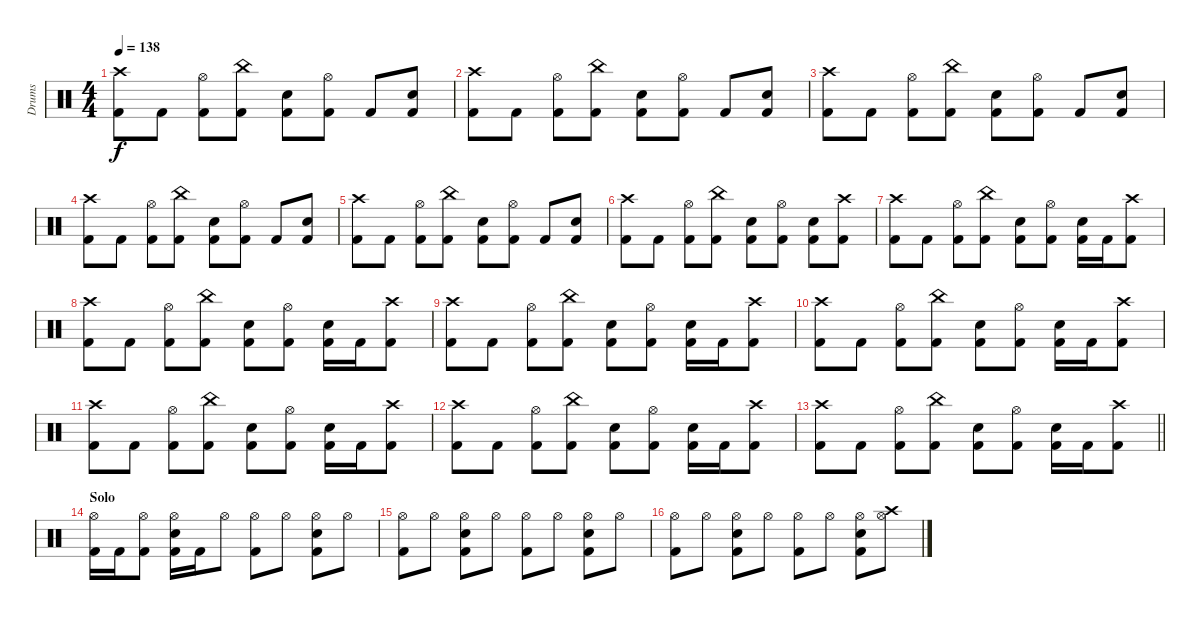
\track ("Drums" "Drums") {instrument percussion}
\staff {score}
\articulation defaults
\ts (4 4)
\tempo 138
\clef neutral
\ks c
("Crash high (hit)" "Kick (hit) 2").8{dy f} "Kick (hit) 2".8 ("Hi-Hat (open)" "Kick (hit) 2").8 ("China (hit)" "Kick (hit) 2").8 ("Electric Snare (hit)" "Kick (hit) 2").8 ("Hi-Hat (open)" "Kick (hit) 2").8 "Kick (hit) 2".8 ("Electric Snare (hit)" "Kick (hit) 2").8 |
("Crash high (hit)" "Kick (hit) 2").8 "Kick (hit) 2".8 ("Hi-Hat (open)" "Kick (hit) 2").8 ("China (hit)" "Kick (hit) 2").8 ("Electric Snare (hit)" "Kick (hit) 2").8 ("Hi-Hat (open)" "Kick (hit) 2").8 "Kick (hit) 2".8 ("Electric Snare (hit)" "Kick (hit) 2").8 |
("Crash high (hit)" "Kick (hit) 2").8 "Kick (hit) 2".8 ("Hi-Hat (open)" "Kick (hit) 2").8 ("China (hit)" "Kick (hit) 2").8 ("Electric Snare (hit)" "Kick (hit) 2").8 ("Hi-Hat (open)" "Kick (hit) 2").8 "Kick (hit) 2".8 ("Electric Snare (hit)" "Kick (hit) 2").8 |
("Crash high (hit)" "Kick (hit) 2").8 "Kick (hit) 2".8 ("Hi-Hat (open)" "Kick (hit) 2").8 ("China (hit)" "Kick (hit) 2").8 ("Electric Snare (hit)" "Kick (hit) 2").8 ("Hi-Hat (open)" "Kick (hit) 2").8 "Kick (hit) 2".8 ("Electric Snare (hit)" "Kick (hit) 2").8 |
("Crash high (hit)" "Kick (hit) 2").8 "Kick (hit) 2".8 ("Hi-Hat (open)" "Kick (hit) 2").8 ("China (hit)" "Kick (hit) 2").8 ("Electric Snare (hit)" "Kick (hit) 2").8 ("Hi-Hat (open)" "Kick (hit) 2").8 "Kick (hit) 2".8 ("Electric Snare (hit)" "Kick (hit) 2").8 |
("Crash high (hit)" "Kick (hit) 2").8 "Kick (hit) 2".8 ("Hi-Hat (open)" "Kick (hit) 2").8 ("China (hit)" "Kick (hit) 2").8 ("Electric Snare (hit)" "Kick (hit) 2").8 ("Hi-Hat (open)" "Kick (hit) 2").8 ("Electric Snare (hit)" "Kick (hit) 2").8 ("Crash high (hit)" "Kick (hit) 2").8 |
("Crash high (hit)" "Kick (hit) 2").8 "Kick (hit) 2".8 ("Hi-Hat (open)" "Kick (hit) 2").8 ("China (hit)" "Kick (hit) 2").8 ("Electric Snare (hit)" "Kick (hit) 2").8 ("Hi-Hat (open)" "Kick (hit) 2").8 ("Electric Snare (hit)" "Kick (hit) 2").16 "Kick (hit) 2".16 ("Crash high (hit)" "Kick (hit) 2").8 |
("Crash high (hit)" "Kick (hit) 2").8 "Kick (hit) 2".8 ("Hi-Hat (open)" "Kick (hit) 2").8 ("China (hit)" "Kick (hit) 2").8 ("Electric Snare (hit)" "Kick (hit) 2").8 ("Hi-Hat (open)" "Kick (hit) 2").8 ("Electric Snare (hit)" "Kick (hit) 2").16 "Kick (hit) 2".16 ("Crash high (hit)" "Kick (hit) 2").8 |
("Crash high (hit)" "Kick (hit) 2").8 "Kick (hit) 2".8 ("Hi-Hat (open)" "Kick (hit) 2").8 ("China (hit)" "Kick (hit) 2").8 ("Electric Snare (hit)" "Kick (hit) 2").8 ("Hi-Hat (open)" "Kick (hit) 2").8 ("Electric Snare (hit)" "Kick (hit) 2").16 "Kick (hit) 2".16 ("Crash high (hit)" "Kick (hit) 2").8 |
("Crash high (hit)" "Kick (hit) 2").8 "Kick (hit) 2".8 ("Hi-Hat (open)" "Kick (hit) 2").8 ("China (hit)" "Kick (hit) 2").8 ("Electric Snare (hit)" "Kick (hit) 2").8 ("Hi-Hat (open)" "Kick (hit) 2").8 ("Electric Snare (hit)" "Kick (hit) 2").16 "Kick (hit) 2".16 ("Crash high (hit)" "Kick (hit) 2").8 |
("Crash high (hit)" "Kick (hit) 2").8 "Kick (hit) 2".8 ("Hi-Hat (open)" "Kick (hit) 2").8 ("China (hit)" "Kick (hit) 2").8 ("Electric Snare (hit)" "Kick (hit) 2").8 ("Hi-Hat (open)" "Kick (hit) 2").8 ("Electric Snare (hit)" "Kick (hit) 2").16 "Kick (hit) 2".16 ("Crash high (hit)" "Kick (hit) 2").8 |
("Crash high (hit)" "Kick (hit) 2").8 "Kick (hit) 2".8 ("Hi-Hat (open)" "Kick (hit) 2").8 ("China (hit)" "Kick (hit) 2").8 ("Electric Snare (hit)" "Kick (hit) 2").8 ("Hi-Hat (open)" "Kick (hit) 2").8 ("Electric Snare (hit)" "Kick (hit) 2").16 "Kick (hit) 2".16 ("Crash high (hit)" "Kick (hit) 2").8 |
\barLineRight lightlight
("Crash high (hit)" "Kick (hit) 2").8 "Kick (hit) 2".8 ("Hi-Hat (open)" "Kick (hit) 2").8 ("China (hit)" "Kick (hit) 2").8 ("Electric Snare (hit)" "Kick (hit) 2").8 ("Hi-Hat (open)" "Kick (hit) 2").8 ("Electric Snare (hit)" "Kick (hit) 2").16 "Kick (hit) 2".16 ("Crash high (hit)" "Kick (hit) 2").8 |
\section ("" "Solo")
("Hi-Hat (open)" "Kick (hit) 2").16 "Kick (hit) 2".16 ("Hi-Hat (open)" "Kick (hit) 2").8 ("Electric Snare (hit)" "Hi-Hat (open)" "Kick (hit) 2").16 "Kick (hit) 2".16 "Hi-Hat (open)".8 ("Hi-Hat (open)" "Kick (hit) 2").8 "Hi-Hat (open)".8 ("Electric Snare (hit)" "Hi-Hat (open)" "Kick (hit) 2").8 "Hi-Hat (open)".8 |
("Hi-Hat (open)" "Kick (hit) 2").8 "Hi-Hat (open)".8 ("Electric Snare (hit)" "Hi-Hat (open)" "Kick (hit) 2").8 "Hi-Hat (open)".8 ("Hi-Hat (open)" "Kick (hit) 2").8 "Hi-Hat (open)".8 ("Electric Snare (hit)" "Hi-Hat (open)" "Kick (hit) 2").8 "Hi-Hat (open)".8 |
("Hi-Hat (open)" "Kick (hit) 2").8 "Hi-Hat (open)".8 ("Electric Snare (hit)" "Hi-Hat (open)" "Kick (hit) 2").8 "Hi-Hat (open)".8 ("Hi-Hat (open)" "Kick (hit) 2").8 "Hi-Hat (open)".8 ("Electric Snare (hit)" "Hi-Hat (open)" "Kick (hit) 2").8 ("Crash high (hit)" "Hi-Hat (open)").8
